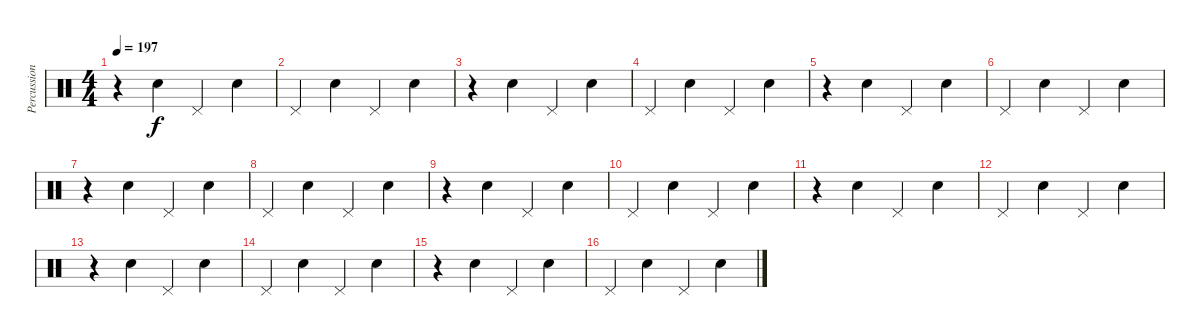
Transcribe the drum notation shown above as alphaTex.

\track ("Percussion" "Percussion") {instrument percussion}
\staff {score}
\articulation defaults
\ts (4 4)
\tempo 197
\clef neutral
\ks c
r.4{dy f} "Electric Snare (hit)".4 "Pedal Hi-Hat (hit)".4 "Electric Snare (hit)".4 |
"Pedal Hi-Hat (hit)".4 "Electric Snare (hit)".4 "Pedal Hi-Hat (hit)".4 "Electric Snare (hit)".4 |
r.4 "Electric Snare (hit)".4 "Pedal Hi-Hat (hit)".4 "Electric Snare (hit)".4 |
"Pedal Hi-Hat (hit)".4 "Electric Snare (hit)".4 "Pedal Hi-Hat (hit)".4 "Electric Snare (hit)".4 |
r.4 "Electric Snare (hit)".4 "Pedal Hi-Hat (hit)".4 "Electric Snare (hit)".4 |
"Pedal Hi-Hat (hit)".4 "Electric Snare (hit)".4 "Pedal Hi-Hat (hit)".4 "Electric Snare (hit)".4 |
r.4 "Electric Snare (hit)".4 "Pedal Hi-Hat (hit)".4 "Electric Snare (hit)".4 |
"Pedal Hi-Hat (hit)".4 "Electric Snare (hit)".4 "Pedal Hi-Hat (hit)".4 "Electric Snare (hit)".4 |
r.4 "Electric Snare (hit)".4 "Pedal Hi-Hat (hit)".4 "Electric Snare (hit)".4 |
"Pedal Hi-Hat (hit)".4 "Electric Snare (hit)".4 "Pedal Hi-Hat (hit)".4 "Electric Snare (hit)".4 |
r.4 "Electric Snare (hit)".4 "Pedal Hi-Hat (hit)".4 "Electric Snare (hit)".4 |
"Pedal Hi-Hat (hit)".4 "Electric Snare (hit)".4 "Pedal Hi-Hat (hit)".4 "Electric Snare (hit)".4 |
r.4 "Electric Snare (hit)".4 "Pedal Hi-Hat (hit)".4 "Electric Snare (hit)".4 |
"Pedal Hi-Hat (hit)".4 "Electric Snare (hit)".4 "Pedal Hi-Hat (hit)".4 "Electric Snare (hit)".4 |
r.4 "Electric Snare (hit)".4 "Pedal Hi-Hat (hit)".4 "Electric Snare (hit)".4 |
"Pedal Hi-Hat (hit)".4 "Electric Snare (hit)".4 "Pedal Hi-Hat (hit)".4 "Electric Snare (hit)".4
